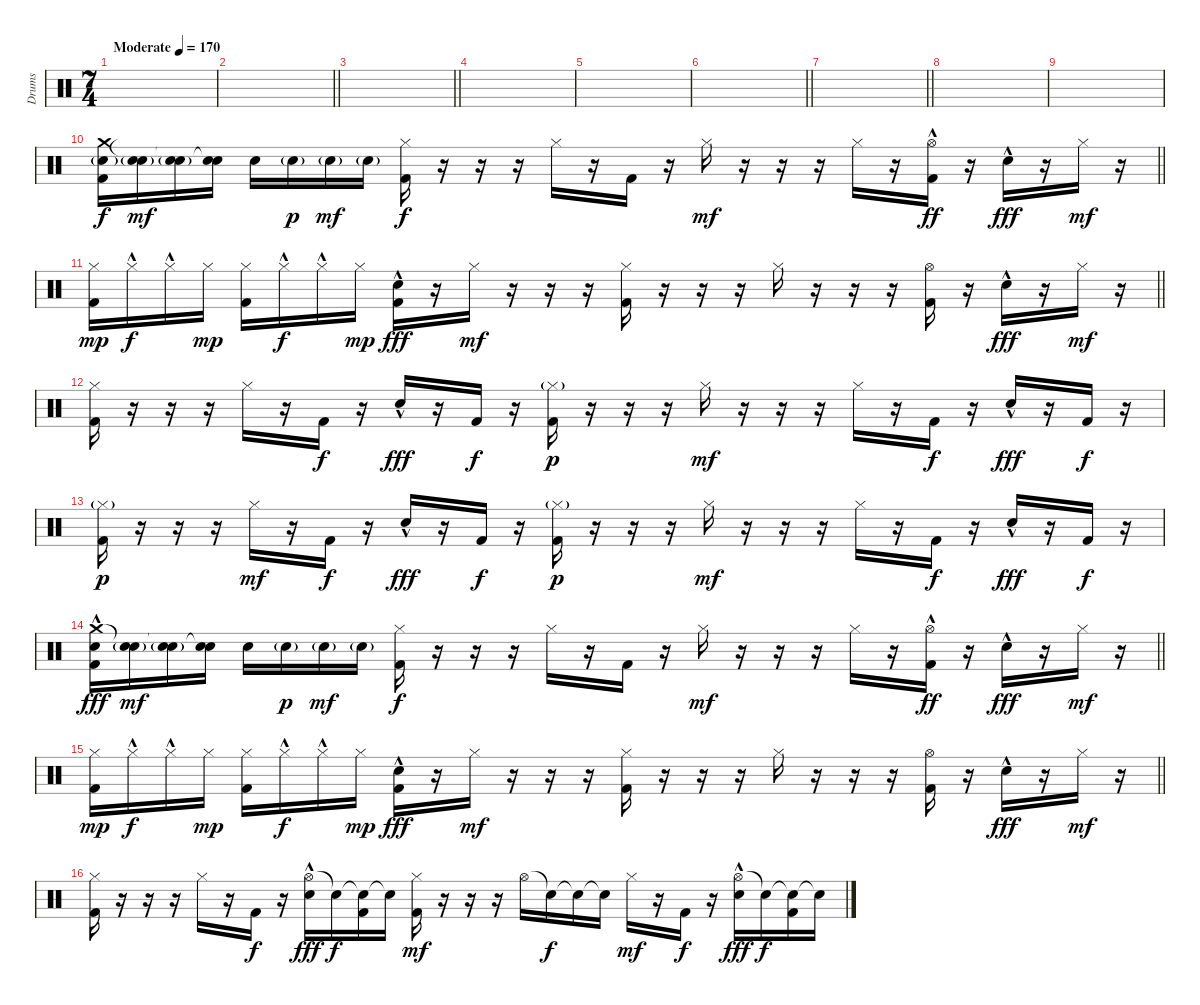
\track ("Drums" "Drums") {instrument percussion}
\staff {score}
\articulation defaults
\ts (7 4)
\tempo (170 "Moderate")
\clef neutral
\ks c
|
\barLineRight lightlight
|
\barLineRight lightlight
|
|
|
\barLineRight lightlight
|
\barLineRight lightlight
|
|
|
\barLineRight lightlight
("Crash medium (hit)" "Electric Snare (hit)"{g} "Kick (hit) 2").16 ("Snare (hit)"{t} "Electric Snare (hit)"{g}).16{dy mf} ("Snare (hit)"{t} "Electric Snare (hit)"{g}).16 ("Snare (hit)"{t} "Electric Snare (hit)").16 "Electric Snare (hit)".16 "Electric Snare (hit)"{g}.16{dy p} "Electric Snare (hit)"{g}.16{dy mf} "Electric Snare (hit)"{g}.16 ("Hi-Hat (closed)" "Kick (hit) 2").16{dy f} r.16 r.16 r.16 "Hi-Hat (closed)".16 r.16 "Kick (hit) 2".16 r.16 "Hi-Hat (closed)".16{dy mf} r.16 r.16 r.16 "Hi-Hat (closed)".16 r.16 ("Hi-Hat (open)"{hac} "Kick (hit) 2").16{dy ff} r.16 "Electric Snare (hit)"{hac}.16{dy fff} r.16 "Hi-Hat (closed)".16{dy mf} r.16 |
\barLineRight lightlight
("Hi-Hat (closed)" "Kick (hit) 2").16{dy mp} "Hi-Hat (closed)"{hac}.16{dy f} "Hi-Hat (closed)"{hac}.16 "Hi-Hat (closed)".16{dy mp} ("Hi-Hat (closed)" "Kick (hit) 2").16 "Hi-Hat (closed)"{hac}.16{dy f} "Hi-Hat (closed)"{hac}.16 "Hi-Hat (closed)".16{dy mp} ("Electric Snare (hit)"{hac} "Kick (hit) 2").16{dy fff} r.16 "Hi-Hat (closed)".16{dy mf} r.16 r.16 r.16 ("Hi-Hat (closed)" "Kick (hit) 2").16 r.16 r.16 r.16 "Hi-Hat (closed)".16 r.16 r.16 r.16 ("Hi-Hat (open)" "Kick (hit) 2").16 r.16 "Electric Snare (hit)"{hac}.16{dy fff} r.16 "Hi-Hat (closed)".16{dy mf} r.16 |
("Hi-Hat (closed)" "Kick (hit) 2").16 r.16 r.16 r.16 "Hi-Hat (closed)".16 r.16 "Kick (hit) 2".16{dy f} r.16 "Electric Snare (hit)"{hac}.16{dy fff} r.16 "Kick (hit) 2".16{dy f} r.16 ("Hi-Hat (closed)"{g} "Kick (hit) 2").16{dy p} r.16 r.16 r.16 "Hi-Hat (closed)".16{dy mf} r.16 r.16 r.16 "Hi-Hat (closed)".16 r.16 "Kick (hit) 2".16{dy f} r.16 "Electric Snare (hit)"{hac}.16{dy fff} r.16 "Kick (hit) 2".16{dy f} r.16 |
("Hi-Hat (closed)"{g} "Kick (hit) 2").16{dy p} r.16 r.16 r.16 "Hi-Hat (closed)".16{dy mf} r.16 "Kick (hit) 2".16{dy f} r.16 "Electric Snare (hit)"{hac}.16{dy fff} r.16 "Kick (hit) 2".16{dy f} r.16 ("Hi-Hat (closed)"{g} "Kick (hit) 2").16{dy p} r.16 r.16 r.16 "Hi-Hat (closed)".16{dy mf} r.16 r.16 r.16 "Hi-Hat (closed)".16 r.16 "Kick (hit) 2".16{dy f} r.16 "Electric Snare (hit)"{hac}.16{dy fff} r.16 "Kick (hit) 2".16{dy f} r.16 |
\barLineRight lightlight
("Crash medium (hit)"{hac} "Electric Snare (hit)" "Kick (hit) 2").16{dy fff} ("Snare (hit)"{t} "Electric Snare (hit)"{g}).16{dy mf} ("Snare (hit)"{t} "Electric Snare (hit)"{g}).16 ("Snare (hit)"{t} "Electric Snare (hit)").16 "Electric Snare (hit)".16 "Electric Snare (hit)"{g}.16{dy p} "Electric Snare (hit)"{g}.16{dy mf} "Electric Snare (hit)"{g}.16 ("Hi-Hat (closed)" "Kick (hit) 2").16{dy f} r.16 r.16 r.16 "Hi-Hat (closed)".16 r.16 "Kick (hit) 2".16 r.16 "Hi-Hat (closed)".16{dy mf} r.16 r.16 r.16 "Hi-Hat (closed)".16 r.16 ("Hi-Hat (open)"{hac} "Kick (hit) 2").16{dy ff} r.16 "Electric Snare (hit)"{hac}.16{dy fff} r.16 "Hi-Hat (closed)".16{dy mf} r.16 |
\barLineRight lightlight
("Hi-Hat (closed)" "Kick (hit) 2").16{dy mp} "Hi-Hat (closed)"{hac}.16{dy f} "Hi-Hat (closed)"{hac}.16 "Hi-Hat (closed)".16{dy mp} ("Hi-Hat (closed)" "Kick (hit) 2").16 "Hi-Hat (closed)"{hac}.16{dy f} "Hi-Hat (closed)"{hac}.16 "Hi-Hat (closed)".16{dy mp} ("Electric Snare (hit)"{hac} "Kick (hit) 2").16{dy fff} r.16 "Hi-Hat (closed)".16{dy mf} r.16 r.16 r.16 ("Hi-Hat (closed)" "Kick (hit) 2").16 r.16 r.16 r.16 "Hi-Hat (closed)".16 r.16 r.16 r.16 ("Hi-Hat (open)" "Kick (hit) 2").16 r.16 "Electric Snare (hit)"{hac}.16{dy fff} r.16 "Hi-Hat (closed)".16{dy mf} r.16 |
("Hi-Hat (closed)" "Kick (hit) 2").16 r.16 r.16 r.16 "Hi-Hat (closed)".16 r.16 "Kick (hit) 2".16{dy f} r.16 ("Hi-Hat (open)" "Electric Snare (hit)"{hac}).16{dy fff} "Snare (hit)"{t}.16{dy f} ("Snare (hit)"{t} "Kick (hit) 2").16 "Snare (hit)"{t}.16 ("Hi-Hat (closed)" "Kick (hit) 2").16{dy mf} r.16 r.16 r.16 "Hi-Hat (open)".16 "Snare (hit)"{t}.16{dy f} "Snare (hit)"{t}.16 "Snare (hit)"{t}.16 "Hi-Hat (closed)".16{dy mf} r.16 "Kick (hit) 2".16{dy f} r.16 ("Hi-Hat (open)" "Electric Snare (hit)"{hac}).16{dy fff} "Snare (hit)"{t}.16{dy f} ("Snare (hit)"{t} "Kick (hit) 2").16 "Snare (hit)"{t}.16
